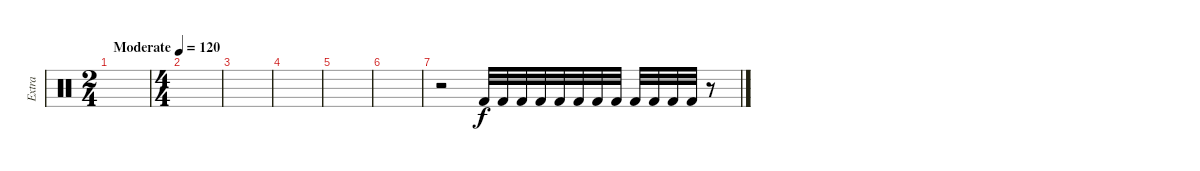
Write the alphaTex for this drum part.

\track ("Extra" "Extra") {instrument percussion}
\staff {score}
\articulation defaults
\ts (2 4)
\tempo (120 "Moderate")
\clef neutral
\ks c
|
\ts (4 4)
|
|
|
|
|
r.2 "Kick (hit) 2".32 "Kick (hit) 2".32 "Kick (hit) 2".32 "Kick (hit) 2".32 "Kick (hit) 2".32 "Kick (hit) 2".32 "Kick (hit) 2".32 "Kick (hit) 2".32 "Kick (hit) 2".32 "Kick (hit) 2".32 "Kick (hit) 2".32 "Kick (hit) 2".32 r.8
